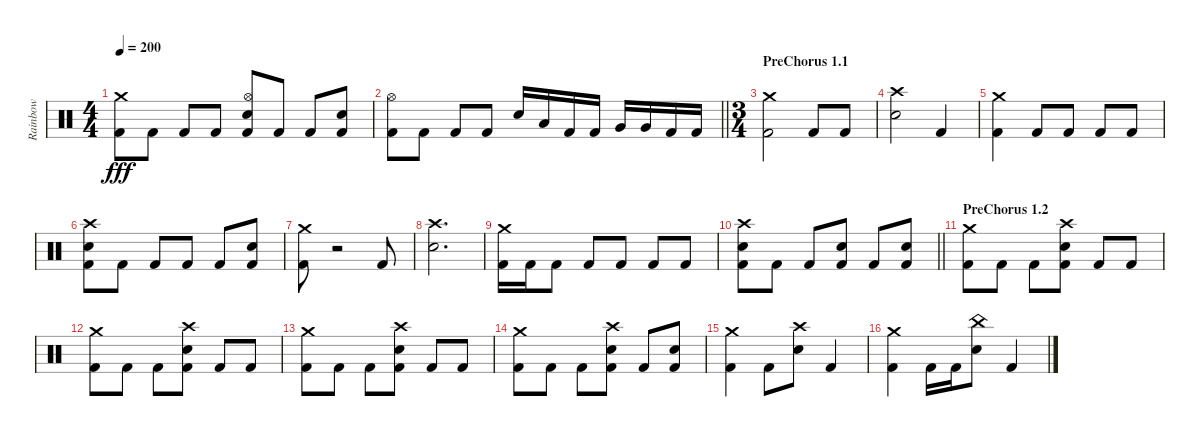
\track ("Rainbow" "Rainbow") {instrument percussion}
\staff {score}
\articulation defaults
\ts (4 4)
\tempo 200
\clef neutral
\ks c
("Crash medium (hit)" "Kick (hit) 2").8{dy fff} "Kick (hit) 2".8 "Kick (hit) 2".8 "Kick (hit) 2".8 ("Hi-Hat (open)" "Electric Snare (hit)" "Kick (hit) 2").8 "Kick (hit) 2".8 "Kick (hit) 2".8 ("Electric Snare (hit)" "Kick (hit) 2").8 |
\barLineRight lightlight
("Hi-Hat (open)" "Kick (hit) 2").8 "Kick (hit) 2".8 "Kick (hit) 2".8 "Kick (hit) 2".8 "Electric Snare (hit)".16 "Low Tom (hit)".16 "Kick (hit) 2".16 "Kick (hit) 2".16 "Very Low Tom (hit)".16 "Very Low Tom (hit)".16 "Kick (hit) 2".16 "Kick (hit) 2".16 |
\ts (3 4)
\section ("" "PreChorus 1.1")
("Crash medium (hit)" "Kick (hit) 2").2 "Kick (hit) 2".8 "Kick (hit) 2".8 |
("Crash high (hit)" "Electric Snare (hit)").2 "Kick (hit) 2".4 |
("Crash medium (hit)" "Kick (hit) 2").4 "Kick (hit) 2".8 "Kick (hit) 2".8 "Kick (hit) 2".8 "Kick (hit) 2".8 |
("Crash high (hit)" "Electric Snare (hit)" "Kick (hit) 2").8 "Kick (hit) 2".8 "Kick (hit) 2".8 "Kick (hit) 2".8 "Kick (hit) 2".8 ("Electric Snare (hit)" "Kick (hit) 2").8 |
("Crash medium (hit)" "Kick (hit) 2").8 r.2 "Kick (hit) 2".8 |
("Crash high (hit)" "Electric Snare (hit)").2{d} |
("Crash medium (hit)" "Kick (hit) 2").16 "Kick (hit) 2".16 "Kick (hit) 2".8 "Kick (hit) 2".8 "Kick (hit) 2".8 "Kick (hit) 2".8 "Kick (hit) 2".8 |
\barLineRight lightlight
("Crash high (hit)" "Electric Snare (hit)" "Kick (hit) 2").8 "Kick (hit) 2".8 "Kick (hit) 2".8 ("Electric Snare (hit)" "Kick (hit) 2").8 "Kick (hit) 2".8 ("Electric Snare (hit)" "Kick (hit) 2").8 |
\section ("" "PreChorus 1.2")
("Crash medium (hit)" "Kick (hit) 2").8 "Kick (hit) 2".8 "Kick (hit) 2".8 ("Crash high (hit)" "Electric Snare (hit)" "Kick (hit) 2").8 "Kick (hit) 2".8 "Kick (hit) 2".8 |
("Crash medium (hit)" "Kick (hit) 2").8 "Kick (hit) 2".8 "Kick (hit) 2".8 ("Crash high (hit)" "Electric Snare (hit)" "Kick (hit) 2").8 "Kick (hit) 2".8 "Kick (hit) 2".8 |
("Crash medium (hit)" "Kick (hit) 2").8 "Kick (hit) 2".8 "Kick (hit) 2".8 ("Crash high (hit)" "Electric Snare (hit)" "Kick (hit) 2").8 "Kick (hit) 2".8 "Kick (hit) 2".8 |
("Crash medium (hit)" "Kick (hit) 2").8 "Kick (hit) 2".8 "Kick (hit) 2".8 ("Crash high (hit)" "Electric Snare (hit)" "Kick (hit) 2").8 "Kick (hit) 2".8 ("Electric Snare (hit)" "Kick (hit) 2").8 |
("Crash medium (hit)" "Kick (hit) 2").4 "Kick (hit) 2".8 ("Crash high (hit)" "Electric Snare (hit)").8 "Kick (hit) 2".4 |
("Crash medium (hit)" "Kick (hit) 2").4 "Kick (hit) 2".16 "Kick (hit) 2".16 ("China (hit)" "Electric Snare (hit)").8 "Kick (hit) 2".4
